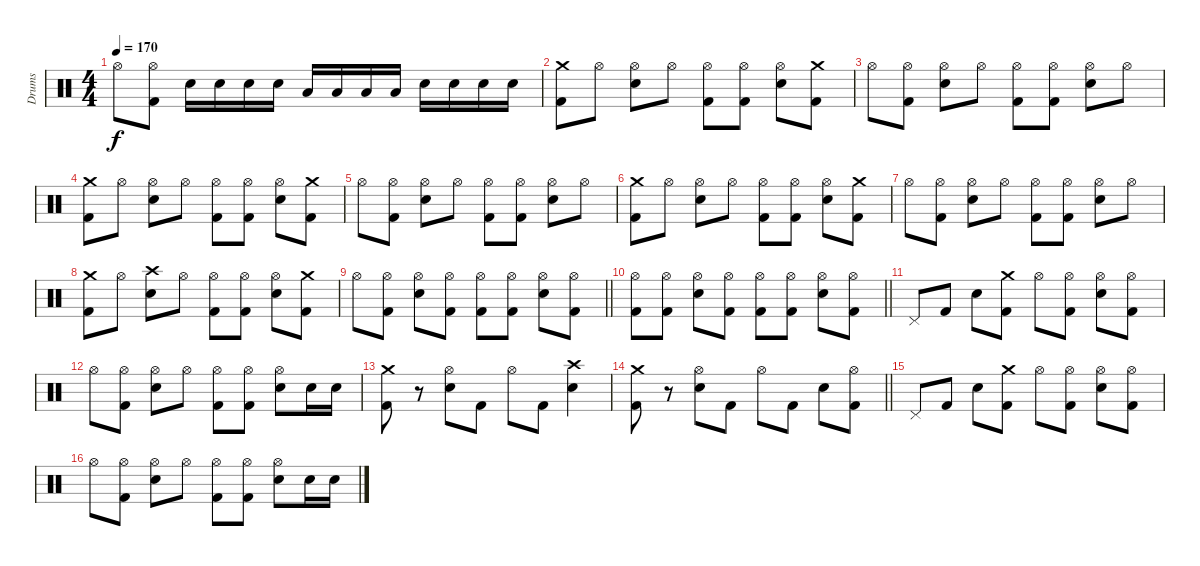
\track ("Drums" "Drums") {instrument percussion}
\staff {score}
\articulation defaults
\ts (4 4)
\tempo 170
\clef neutral
\ks c "Hi-Hat (open)".8{dy f}
("Hi-Hat (open)" "Kick (hit) 2").8 "Electric Snare (hit)".16 "Electric Snare (hit)".16 "Electric Snare (hit)".16 "Electric Snare (hit)".16 "Low Tom (hit)".16 "Low Tom (hit)".16 "Low Tom (hit)".16 "Low Tom (hit)".16 "Electric Snare (hit)".16 "Electric Snare (hit)".16 "Electric Snare (hit)".16 "Electric Snare (hit)".16 |
("Crash medium (hit)" "Kick (hit) 2").8 "Hi-Hat (open)".8 ("Hi-Hat (open)" "Electric Snare (hit)").8 "Hi-Hat (open)".8 ("Hi-Hat (open)" "Kick (hit) 2").8 ("Hi-Hat (open)" "Kick (hit) 2").8 ("Hi-Hat (open)" "Electric Snare (hit)").8 ("Crash medium (hit)" "Kick (hit) 2").8 |
"Hi-Hat (open)".8 ("Hi-Hat (open)" "Kick (hit) 2").8 ("Hi-Hat (open)" "Electric Snare (hit)").8 "Hi-Hat (open)".8 ("Hi-Hat (open)" "Kick (hit) 2").8 ("Hi-Hat (open)" "Kick (hit) 2").8 ("Hi-Hat (open)" "Electric Snare (hit)").8 "Hi-Hat (open)".8 |
("Crash medium (hit)" "Kick (hit) 2").8 "Hi-Hat (open)".8 ("Hi-Hat (open)" "Electric Snare (hit)").8 "Hi-Hat (open)".8 ("Hi-Hat (open)" "Kick (hit) 2").8 ("Hi-Hat (open)" "Kick (hit) 2").8 ("Hi-Hat (open)" "Electric Snare (hit)").8 ("Crash medium (hit)" "Kick (hit) 2").8 |
"Hi-Hat (open)".8 ("Hi-Hat (open)" "Kick (hit) 2").8 ("Hi-Hat (open)" "Electric Snare (hit)").8 "Hi-Hat (open)".8 ("Hi-Hat (open)" "Kick (hit) 2").8 ("Hi-Hat (open)" "Kick (hit) 2").8 ("Hi-Hat (open)" "Electric Snare (hit)").8 "Hi-Hat (open)".8 |
("Crash medium (hit)" "Kick (hit) 2").8 "Hi-Hat (open)".8 ("Hi-Hat (open)" "Electric Snare (hit)").8 "Hi-Hat (open)".8 ("Hi-Hat (open)" "Kick (hit) 2").8 ("Hi-Hat (open)" "Kick (hit) 2").8 ("Hi-Hat (open)" "Electric Snare (hit)").8 ("Crash medium (hit)" "Kick (hit) 2").8 |
"Hi-Hat (open)".8 ("Hi-Hat (open)" "Kick (hit) 2").8 ("Hi-Hat (open)" "Electric Snare (hit)").8 "Hi-Hat (open)".8 ("Hi-Hat (open)" "Kick (hit) 2").8 ("Hi-Hat (open)" "Kick (hit) 2").8 ("Hi-Hat (open)" "Electric Snare (hit)").8 "Hi-Hat (open)".8 |
("Crash medium (hit)" "Kick (hit) 2").8 "Hi-Hat (open)".8 ("Crash high (hit)" "Electric Snare (hit)").8 "Hi-Hat (open)".8 ("Hi-Hat (open)" "Kick (hit) 2").8 ("Hi-Hat (open)" "Kick (hit) 2").8 ("Hi-Hat (open)" "Electric Snare (hit)").8 ("Crash medium (hit)" "Kick (hit) 2").8 |
\barLineRight lightlight "Hi-Hat (open)".8
("Hi-Hat (open)" "Kick (hit) 2").8 ("Hi-Hat (open)" "Electric Snare (hit)").8 ("Hi-Hat (open)" "Kick (hit) 2").8 ("Hi-Hat (open)" "Kick (hit) 2").8 ("Hi-Hat (open)" "Kick (hit) 2").8 ("Hi-Hat (open)" "Electric Snare (hit)").8 ("Hi-Hat (open)" "Kick (hit) 2").8 |
\barLineRight lightlight
("Hi-Hat (open)" "Kick (hit) 2").8 ("Hi-Hat (open)" "Kick (hit) 2").8 ("Hi-Hat (open)" "Electric Snare (hit)").8 ("Hi-Hat (open)" "Kick (hit) 2").8 ("Hi-Hat (open)" "Kick (hit) 2").8 ("Hi-Hat (open)" "Kick (hit) 2").8 ("Hi-Hat (open)" "Electric Snare (hit)").8 ("Hi-Hat (open)" "Kick (hit) 2").8 |
"Pedal Hi-Hat (hit)".8 "Kick (hit) 2".8 "Electric Snare (hit)".8 ("Crash medium (hit)" "Kick (hit) 2").8 "Hi-Hat (open)".8 ("Hi-Hat (open)" "Kick (hit) 2").8 ("Hi-Hat (open)" "Electric Snare (hit)").8 ("Hi-Hat (open)" "Kick (hit) 2").8 |
"Hi-Hat (open)".8 ("Hi-Hat (open)" "Kick (hit) 2").8 ("Hi-Hat (open)" "Electric Snare (hit)").8 "Hi-Hat (open)".8 ("Hi-Hat (open)" "Kick (hit) 2").8 ("Hi-Hat (open)" "Kick (hit) 2").8 ("Hi-Hat (open)" "Electric Snare (hit)").8 "Electric Snare (hit)".16 "Electric Snare (hit)".16 |
("Crash medium (hit)" "Kick (hit) 2").8 r.8 ("Hi-Hat (open)" "Electric Snare (hit)").8 "Kick (hit) 2".8 "Hi-Hat (open)".8 "Kick (hit) 2".8 ("Crash high (hit)" "Electric Snare (hit)").4 |
\barLineRight lightlight
("Crash medium (hit)" "Kick (hit) 2").8 r.8 ("Hi-Hat (open)" "Electric Snare (hit)").8 "Kick (hit) 2".8 "Hi-Hat (open)".8 "Kick (hit) 2".8 "Electric Snare (hit)".8 ("Hi-Hat (open)" "Kick (hit) 2").8 |
"Pedal Hi-Hat (hit)".8 "Kick (hit) 2".8 "Electric Snare (hit)".8 ("Crash medium (hit)" "Kick (hit) 2").8 "Hi-Hat (open)".8 ("Hi-Hat (open)" "Kick (hit) 2").8 ("Hi-Hat (open)" "Electric Snare (hit)").8 ("Hi-Hat (open)" "Kick (hit) 2").8 |
"Hi-Hat (open)".8 ("Hi-Hat (open)" "Kick (hit) 2").8 ("Hi-Hat (open)" "Electric Snare (hit)").8 "Hi-Hat (open)".8 ("Hi-Hat (open)" "Kick (hit) 2").8 ("Hi-Hat (open)" "Kick (hit) 2").8 ("Hi-Hat (open)" "Electric Snare (hit)").8 "Electric Snare (hit)".16 "Electric Snare (hit)".16
